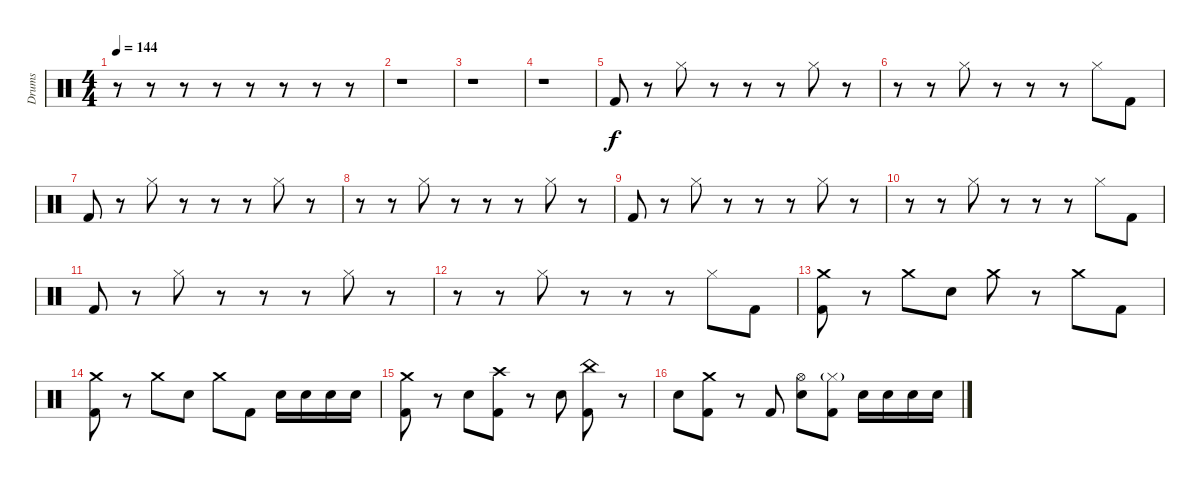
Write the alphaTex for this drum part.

\track ("Drums" "Drums") {instrument percussion}
\staff {score}
\articulation defaults
\ts (4 4)
\tempo 144
\clef neutral
\ks c
r.8{dy f} r.8 r.8 r.8 r.8 r.8 r.8 r.8 |
r.1 |
r.1 |
r.1 |
"Kick (hit) 2".8 r.8 "Hi-Hat (closed)".8 r.8 r.8 r.8 "Hi-Hat (closed)".8 r.8 |
r.8 r.8 "Hi-Hat (closed)".8 r.8 r.8 r.8 "Hi-Hat (closed)".8 "Kick (hit) 2".8 |
"Kick (hit) 2".8 r.8 "Hi-Hat (closed)".8 r.8 r.8 r.8 "Hi-Hat (closed)".8 r.8 |
r.8 r.8 "Hi-Hat (closed)".8 r.8 r.8 r.8 "Hi-Hat (closed)".8 r.8 |
"Kick (hit) 2".8 r.8 "Hi-Hat (closed)".8 r.8 r.8 r.8 "Hi-Hat (closed)".8 r.8 |
r.8 r.8 "Hi-Hat (closed)".8 r.8 r.8 r.8 "Hi-Hat (closed)".8 "Kick (hit) 2".8 |
"Kick (hit) 2".8 r.8 "Hi-Hat (closed)".8 r.8 r.8 r.8 "Hi-Hat (closed)".8 r.8 |
r.8 r.8 "Hi-Hat (closed)".8 r.8 r.8 r.8 "Hi-Hat (closed)".8 "Kick (hit) 2".8 |
("Crash medium (hit)" "Kick (hit) 2").8 r.8 "Crash medium (hit)".8 "Electric Snare (hit)".8 "Crash medium (hit)".8 r.8 "Crash medium (hit)".8 "Kick (hit) 2".8 |
("Crash medium (hit)" "Kick (hit) 2").8 r.8 "Crash medium (hit)".8 "Electric Snare (hit)".8 "Crash medium (hit)".8 "Kick (hit) 2".8 "Electric Snare (hit)".16 "Electric Snare (hit)".16 "Electric Snare (hit)".16 "Electric Snare (hit)".16 |
("Crash medium (hit)" "Kick (hit) 2").8 r.8 "Electric Snare (hit)".8 ("Crash high (hit)" "Kick (hit) 2").8 r.8 "Electric Snare (hit)".8 ("China (hit)" "Kick (hit) 2").8 r.8 |
"Electric Snare (hit)".8 ("Crash medium (hit)" "Kick (hit) 2").8 r.8 "Kick (hit) 2".8 ("Hi-Hat (open)" "Electric Snare (hit)").8 ("Hi-Hat (closed)"{g} "Kick (hit) 2").8 "Electric Snare (hit)".16 "Electric Snare (hit)".16 "Electric Snare (hit)".16 "Electric Snare (hit)".16
